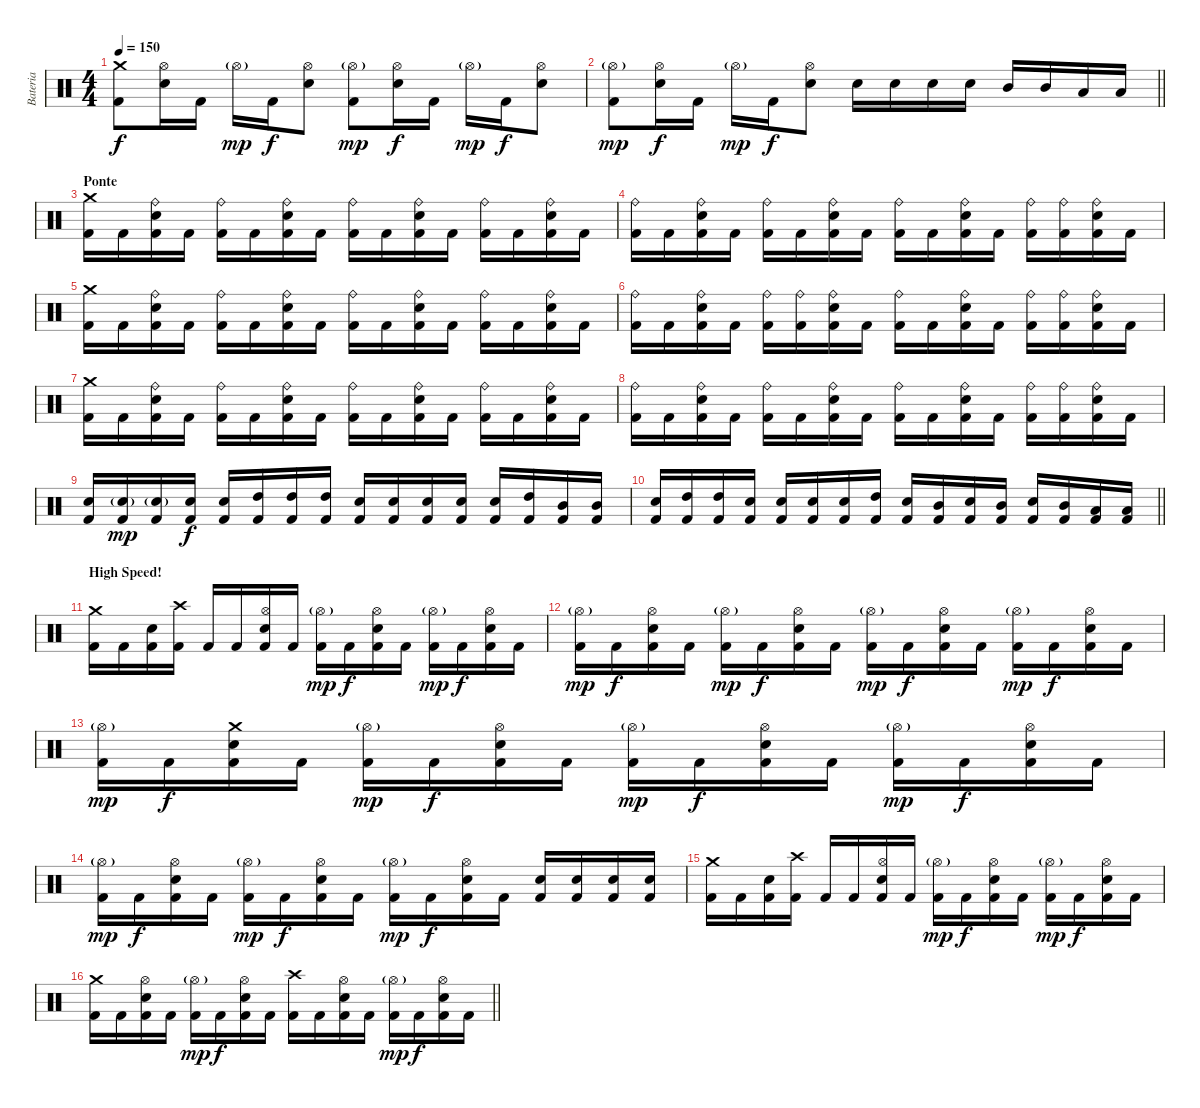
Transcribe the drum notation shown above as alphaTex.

\track ("Bateria" "Bateria") {instrument percussion}
\staff {score}
\articulation defaults
\ts (4 4)
\tempo 150
\clef neutral
\ks c
("Crash medium (hit)" "Kick (hit) 2").8{dy f} ("Hi-Hat (open)" "Electric Snare (hit)").16 "Kick (hit) 2".16 "Hi-Hat (open)"{g}.16{dy mp} "Kick (hit) 2".16{dy f} ("Hi-Hat (open)" "Electric Snare (hit)").8 ("Hi-Hat (open)"{g} "Kick (hit) 2").8{dy mp} ("Hi-Hat (open)" "Electric Snare (hit)").16{dy f} "Kick (hit) 2".16 "Hi-Hat (open)"{g}.16{dy mp} "Kick (hit) 2".16{dy f} ("Hi-Hat (open)" "Electric Snare (hit)").8 |
\barLineRight lightlight
("Hi-Hat (open)"{g} "Kick (hit) 2").8{dy mp} ("Hi-Hat (open)" "Electric Snare (hit)").16{dy f} "Kick (hit) 2".16 "Hi-Hat (open)"{g}.16{dy mp} "Kick (hit) 2".16{dy f} ("Hi-Hat (open)" "Electric Snare (hit)").8 "Electric Snare (hit)".16 "Electric Snare (hit)".16 "Electric Snare (hit)".16 "Electric Snare (hit)".16 "Mid Tom (hit)".16 "Mid Tom (hit)".16 "Low Tom (hit)".16 "Low Tom (hit)".16 |
\section ("" "Ponte")
("Crash medium (hit)" "Kick (hit) 2").16 "Kick (hit) 2".16 ("Ride (bell)" "Electric Snare (hit)" "Kick (hit) 2").16 "Kick (hit) 2".16 ("Ride (bell)" "Kick (hit) 2").16 "Kick (hit) 2".16 ("Ride (bell)" "Electric Snare (hit)" "Kick (hit) 2").16 "Kick (hit) 2".16 ("Ride (bell)" "Kick (hit) 2").16 "Kick (hit) 2".16 ("Ride (bell)" "Electric Snare (hit)" "Kick (hit) 2").16 "Kick (hit) 2".16 ("Ride (bell)" "Kick (hit) 2").16 "Kick (hit) 2".16 ("Ride (bell)" "Electric Snare (hit)" "Kick (hit) 2").16 "Kick (hit) 2".16 |
("Ride (bell)" "Kick (hit) 2").16 "Kick (hit) 2".16 ("Ride (bell)" "Electric Snare (hit)" "Kick (hit) 2").16 "Kick (hit) 2".16 ("Ride (bell)" "Kick (hit) 2").16 "Kick (hit) 2".16 ("Ride (bell)" "Electric Snare (hit)" "Kick (hit) 2").16 "Kick (hit) 2".16 ("Ride (bell)" "Kick (hit) 2").16 "Kick (hit) 2".16 ("Ride (bell)" "Electric Snare (hit)" "Kick (hit) 2").16 "Kick (hit) 2".16 ("Ride (bell)" "Kick (hit) 2").16 ("Ride (bell)" "Kick (hit) 2").16 ("Ride (bell)" "Electric Snare (hit)" "Kick (hit) 2").16 "Kick (hit) 2".16 |
("Crash medium (hit)" "Kick (hit) 2").16 "Kick (hit) 2".16 ("Ride (bell)" "Electric Snare (hit)" "Kick (hit) 2").16 "Kick (hit) 2".16 ("Ride (bell)" "Kick (hit) 2").16 "Kick (hit) 2".16 ("Ride (bell)" "Electric Snare (hit)" "Kick (hit) 2").16 "Kick (hit) 2".16 ("Ride (bell)" "Kick (hit) 2").16 "Kick (hit) 2".16 ("Ride (bell)" "Electric Snare (hit)" "Kick (hit) 2").16 "Kick (hit) 2".16 ("Ride (bell)" "Kick (hit) 2").16 "Kick (hit) 2".16 ("Ride (bell)" "Electric Snare (hit)" "Kick (hit) 2").16 "Kick (hit) 2".16 |
("Ride (bell)" "Kick (hit) 2").16 "Kick (hit) 2".16 ("Ride (bell)" "Electric Snare (hit)" "Kick (hit) 2").16 "Kick (hit) 2".16 ("Ride (bell)" "Kick (hit) 2").16 ("Ride (bell)" "Kick (hit) 2").16 ("Ride (bell)" "Electric Snare (hit)" "Kick (hit) 2").16 "Kick (hit) 2".16 ("Ride (bell)" "Kick (hit) 2").16 "Kick (hit) 2".16 ("Ride (bell)" "Electric Snare (hit)" "Kick (hit) 2").16 "Kick (hit) 2".16 ("Ride (bell)" "Kick (hit) 2").16 ("Ride (bell)" "Kick (hit) 2").16 ("Ride (bell)" "Electric Snare (hit)" "Kick (hit) 2").16 "Kick (hit) 2".16 |
("Crash medium (hit)" "Kick (hit) 2").16 "Kick (hit) 2".16 ("Ride (bell)" "Electric Snare (hit)" "Kick (hit) 2").16 "Kick (hit) 2".16 ("Ride (bell)" "Kick (hit) 2").16 "Kick (hit) 2".16 ("Ride (bell)" "Electric Snare (hit)" "Kick (hit) 2").16 "Kick (hit) 2".16 ("Ride (bell)" "Kick (hit) 2").16 "Kick (hit) 2".16 ("Ride (bell)" "Electric Snare (hit)" "Kick (hit) 2").16 "Kick (hit) 2".16 ("Ride (bell)" "Kick (hit) 2").16 "Kick (hit) 2".16 ("Ride (bell)" "Electric Snare (hit)" "Kick (hit) 2").16 "Kick (hit) 2".16 |
("Ride (bell)" "Kick (hit) 2").16 "Kick (hit) 2".16 ("Ride (bell)" "Electric Snare (hit)" "Kick (hit) 2").16 "Kick (hit) 2".16 ("Ride (bell)" "Kick (hit) 2").16 "Kick (hit) 2".16 ("Ride (bell)" "Electric Snare (hit)" "Kick (hit) 2").16 "Kick (hit) 2".16 ("Ride (bell)" "Kick (hit) 2").16 "Kick (hit) 2".16 ("Ride (bell)" "Electric Snare (hit)" "Kick (hit) 2").16 "Kick (hit) 2".16 ("Ride (bell)" "Kick (hit) 2").16 ("Ride (bell)" "Kick (hit) 2").16 ("Ride (bell)" "Electric Snare (hit)" "Kick (hit) 2").16 "Kick (hit) 2".16 |
("Electric Snare (hit)" "Kick (hit) 2").16 ("Electric Snare (hit)"{g} "Kick (hit) 2").16{dy mp} ("Electric Snare (hit)"{g} "Kick (hit) 2").16 ("Electric Snare (hit)" "Kick (hit) 2").16{dy f} ("Electric Snare (hit)" "Kick (hit) 2").16 ("High Tom (hit)" "Kick (hit) 2").16 ("High Tom (hit)" "Kick (hit) 2").16 ("High Tom (hit)" "Kick (hit) 2").16 ("Electric Snare (hit)" "Kick (hit) 2").16 ("Electric Snare (hit)" "Kick (hit) 2").16 ("Electric Snare (hit)" "Kick (hit) 2").16 ("Electric Snare (hit)" "Kick (hit) 2").16 ("Electric Snare (hit)" "Kick (hit) 2").16 ("High Tom (hit)" "Kick (hit) 2").16 ("Mid Tom (hit)" "Kick (hit) 2").16 ("Mid Tom (hit)" "Kick (hit) 2").16 |
\barLineRight lightlight
("Electric Snare (hit)" "Kick (hit) 2").16 ("High Tom (hit)" "Kick (hit) 2").16 ("High Tom (hit)" "Kick (hit) 2").16 ("Electric Snare (hit)" "Kick (hit) 2").16 ("Electric Snare (hit)" "Kick (hit) 2").16 ("Electric Snare (hit)" "Kick (hit) 2").16 ("Electric Snare (hit)" "Kick (hit) 2").16 ("High Tom (hit)" "Kick (hit) 2").16 ("Electric Snare (hit)" "Kick (hit) 2").16 ("Mid Tom (hit)" "Kick (hit) 2").16 ("Electric Snare (hit)" "Kick (hit) 2").16 ("Mid Tom (hit)" "Kick (hit) 2").16 ("Electric Snare (hit)" "Kick (hit) 2").16 ("Mid Tom (hit)" "Kick (hit) 2").16 ("Low Tom (hit)" "Kick (hit) 2").16 ("Low Tom (hit)" "Kick (hit) 2").16 |
\section ("" "High Speed!")
("Crash medium (hit)" "Kick (hit) 2").16 "Kick (hit) 2".16 ("Electric Snare (hit)" "Kick (hit) 2").16 ("Crash high (hit)" "Kick (hit) 2").16 "Kick (hit) 2".16 "Kick (hit) 2".16 ("Hi-Hat (open)" "Electric Snare (hit)" "Kick (hit) 2").16 "Kick (hit) 2".16 ("Hi-Hat (open)"{g} "Kick (hit) 2").16{dy mp} "Kick (hit) 2".16{dy f} ("Hi-Hat (open)" "Electric Snare (hit)" "Kick (hit) 2").16 "Kick (hit) 2".16 ("Hi-Hat (open)"{g} "Kick (hit) 2").16{dy mp} "Kick (hit) 2".16{dy f} ("Hi-Hat (open)" "Electric Snare (hit)" "Kick (hit) 2").16 "Kick (hit) 2".16 |
("Hi-Hat (open)"{g} "Kick (hit) 2").16{dy mp} "Kick (hit) 2".16{dy f} ("Hi-Hat (open)" "Electric Snare (hit)" "Kick (hit) 2").16 "Kick (hit) 2".16 ("Hi-Hat (open)"{g} "Kick (hit) 2").16{dy mp} "Kick (hit) 2".16{dy f} ("Hi-Hat (open)" "Electric Snare (hit)" "Kick (hit) 2").16 "Kick (hit) 2".16 ("Hi-Hat (open)"{g} "Kick (hit) 2").16{dy mp} "Kick (hit) 2".16{dy f} ("Hi-Hat (open)" "Electric Snare (hit)" "Kick (hit) 2").16 "Kick (hit) 2".16 ("Hi-Hat (open)"{g} "Kick (hit) 2").16{dy mp} "Kick (hit) 2".16{dy f} ("Hi-Hat (open)" "Electric Snare (hit)" "Kick (hit) 2").16 "Kick (hit) 2".16 |
("Hi-Hat (open)"{g} "Kick (hit) 2").16{dy mp} "Kick (hit) 2".16{dy f} ("Crash medium (hit)" "Electric Snare (hit)" "Kick (hit) 2").16 "Kick (hit) 2".16 ("Hi-Hat (open)"{g} "Kick (hit) 2").16{dy mp} "Kick (hit) 2".16{dy f} ("Hi-Hat (open)" "Electric Snare (hit)" "Kick (hit) 2").16 "Kick (hit) 2".16 ("Hi-Hat (open)"{g} "Kick (hit) 2").16{dy mp} "Kick (hit) 2".16{dy f} ("Hi-Hat (open)" "Electric Snare (hit)" "Kick (hit) 2").16 "Kick (hit) 2".16 ("Hi-Hat (open)"{g} "Kick (hit) 2").16{dy mp} "Kick (hit) 2".16{dy f} ("Hi-Hat (open)" "Electric Snare (hit)" "Kick (hit) 2").16 "Kick (hit) 2".16 |
("Hi-Hat (open)"{g} "Kick (hit) 2").16{dy mp} "Kick (hit) 2".16{dy f} ("Hi-Hat (open)" "Electric Snare (hit)" "Kick (hit) 2").16 "Kick (hit) 2".16 ("Hi-Hat (open)"{g} "Kick (hit) 2").16{dy mp} "Kick (hit) 2".16{dy f} ("Hi-Hat (open)" "Electric Snare (hit)" "Kick (hit) 2").16 "Kick (hit) 2".16 ("Hi-Hat (open)"{g} "Kick (hit) 2").16{dy mp} "Kick (hit) 2".16{dy f} ("Hi-Hat (open)" "Electric Snare (hit)" "Kick (hit) 2").16 "Kick (hit) 2".16 ("Electric Snare (hit)" "Kick (hit) 2").16 ("Electric Snare (hit)" "Kick (hit) 2").16 ("Electric Snare (hit)" "Kick (hit) 2").16 ("Electric Snare (hit)" "Kick (hit) 2").16 |
("Crash medium (hit)" "Kick (hit) 2").16 "Kick (hit) 2".16 ("Electric Snare (hit)" "Kick (hit) 2").16 ("Crash high (hit)" "Kick (hit) 2").16 "Kick (hit) 2".16 "Kick (hit) 2".16 ("Hi-Hat (open)" "Electric Snare (hit)" "Kick (hit) 2").16 "Kick (hit) 2".16 ("Hi-Hat (open)"{g} "Kick (hit) 2").16{dy mp} "Kick (hit) 2".16{dy f} ("Hi-Hat (open)" "Electric Snare (hit)" "Kick (hit) 2").16 "Kick (hit) 2".16 ("Hi-Hat (open)"{g} "Kick (hit) 2").16{dy mp} "Kick (hit) 2".16{dy f} ("Hi-Hat (open)" "Electric Snare (hit)" "Kick (hit) 2").16 "Kick (hit) 2".16 |
\barLineRight lightlight
("Crash medium (hit)" "Kick (hit) 2").16 "Kick (hit) 2".16 ("Hi-Hat (open)" "Electric Snare (hit)" "Kick (hit) 2").16 "Kick (hit) 2".16 ("Hi-Hat (open)"{g} "Kick (hit) 2").16{dy mp} "Kick (hit) 2".16{dy f} ("Hi-Hat (open)" "Electric Snare (hit)" "Kick (hit) 2").16 "Kick (hit) 2".16 ("Crash high (hit)" "Kick (hit) 2").16 "Kick (hit) 2".16 ("Hi-Hat (open)" "Electric Snare (hit)" "Kick (hit) 2").16 "Kick (hit) 2".16 ("Hi-Hat (open)"{g} "Kick (hit) 2").16{dy mp} "Kick (hit) 2".16{dy f} ("Hi-Hat (open)" "Electric Snare (hit)" "Kick (hit) 2").16 "Kick (hit) 2".16
